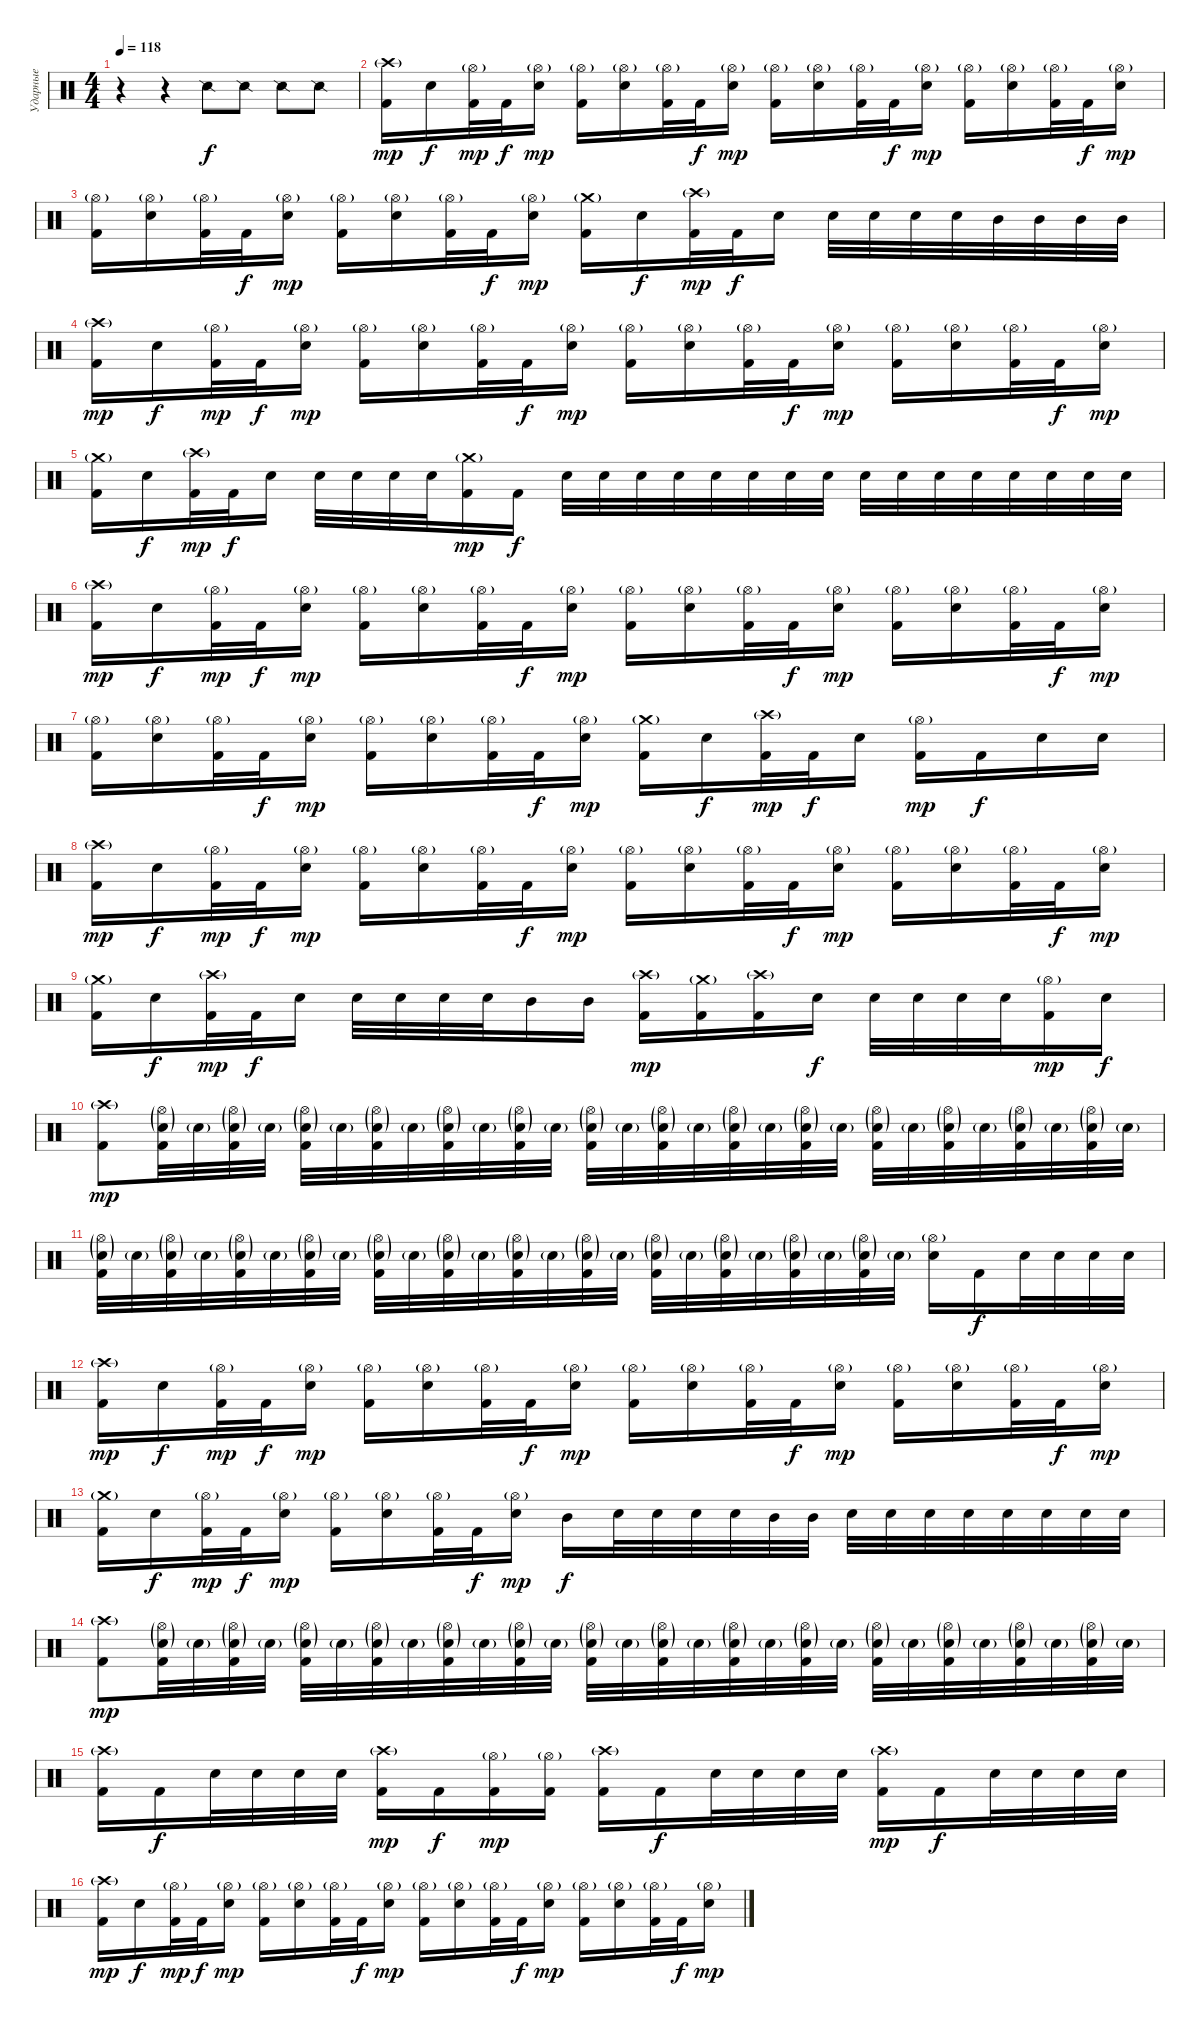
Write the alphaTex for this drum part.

\track ("Ударные" "Ударные") {instrument percussion}
\staff {score}
\articulation defaults
\ts (4 4)
\tempo 118
\clef neutral
\ks c
r.4{dy f} r.4 "Snare (side stick) 2".8 "Snare (side stick) 2".8 "Snare (side stick) 2".8 "Snare (side stick) 2".8 |
("Crash high (hit)"{g} "Kick (hit) 2").16{dy mp} "Electric Snare (hit)".16{dy f} ("Hi-Hat (open)"{g} "Kick (hit) 2").32{dy mp} "Kick (hit) 2".32{dy f} ("Hi-Hat (open)"{g} "Electric Snare (hit)").16{dy mp} ("Hi-Hat (open)"{g} "Kick (hit) 2").16 ("Hi-Hat (open)"{g} "Electric Snare (hit)").16 ("Hi-Hat (open)"{g} "Kick (hit) 2").32 "Kick (hit) 2".32{dy f} ("Hi-Hat (open)"{g} "Electric Snare (hit)").16{dy mp} ("Hi-Hat (open)"{g} "Kick (hit) 2").16 ("Hi-Hat (open)"{g} "Electric Snare (hit)").16 ("Hi-Hat (open)"{g} "Kick (hit) 2").32 "Kick (hit) 2".32{dy f} ("Hi-Hat (open)"{g} "Electric Snare (hit)").16{dy mp} ("Hi-Hat (open)"{g} "Kick (hit) 2").16 ("Hi-Hat (open)"{g} "Electric Snare (hit)").16 ("Hi-Hat (open)"{g} "Kick (hit) 2").32 "Kick (hit) 2".32{dy f} ("Hi-Hat (open)"{g} "Electric Snare (hit)").16{dy mp} |
("Hi-Hat (open)"{g} "Kick (hit) 2").16 ("Hi-Hat (open)"{g} "Electric Snare (hit)").16 ("Hi-Hat (open)"{g} "Kick (hit) 2").32 "Kick (hit) 2".32{dy f} ("Hi-Hat (open)"{g} "Electric Snare (hit)").16{dy mp} ("Hi-Hat (open)"{g} "Kick (hit) 2").16 ("Hi-Hat (open)"{g} "Electric Snare (hit)").16 ("Hi-Hat (open)"{g} "Kick (hit) 2").32 "Kick (hit) 2".32{dy f} ("Hi-Hat (open)"{g} "Electric Snare (hit)").16{dy mp} ("Crash medium (hit)"{g} "Kick (hit) 2").16 "Electric Snare (hit)".16{dy f} ("Crash high (hit)"{g} "Kick (hit) 2").32{dy mp} "Kick (hit) 2".32{dy f} "Electric Snare (hit)".16 "Electric Snare (hit)".32 "Electric Snare (hit)".32 "Electric Snare (hit)".32 "Electric Snare (hit)".32 "Mid Tom (hit)".32 "Mid Tom (hit)".32 "Mid Tom (hit)".32 "Mid Tom (hit)".32 |
("Crash high (hit)"{g} "Kick (hit) 2").16{dy mp} "Electric Snare (hit)".16{dy f} ("Hi-Hat (open)"{g} "Kick (hit) 2").32{dy mp} "Kick (hit) 2".32{dy f} ("Hi-Hat (open)"{g} "Electric Snare (hit)").16{dy mp} ("Hi-Hat (open)"{g} "Kick (hit) 2").16 ("Hi-Hat (open)"{g} "Electric Snare (hit)").16 ("Hi-Hat (open)"{g} "Kick (hit) 2").32 "Kick (hit) 2".32{dy f} ("Hi-Hat (open)"{g} "Electric Snare (hit)").16{dy mp} ("Hi-Hat (open)"{g} "Kick (hit) 2").16 ("Hi-Hat (open)"{g} "Electric Snare (hit)").16 ("Hi-Hat (open)"{g} "Kick (hit) 2").32 "Kick (hit) 2".32{dy f} ("Hi-Hat (open)"{g} "Electric Snare (hit)").16{dy mp} ("Hi-Hat (open)"{g} "Kick (hit) 2").16 ("Hi-Hat (open)"{g} "Electric Snare (hit)").16 ("Hi-Hat (open)"{g} "Kick (hit) 2").32 "Kick (hit) 2".32{dy f} ("Hi-Hat (open)"{g} "Electric Snare (hit)").16{dy mp} |
("Crash medium (hit)"{g} "Kick (hit) 2").16 "Electric Snare (hit)".16{dy f} ("Crash high (hit)"{g} "Kick (hit) 2").32{dy mp} "Kick (hit) 2".32{dy f} "Electric Snare (hit)".16 "Electric Snare (hit)".32 "Electric Snare (hit)".32 "Electric Snare (hit)".32 "Electric Snare (hit)".32 ("Crash medium (hit)"{g} "Kick (hit) 2").16{dy mp} "Kick (hit) 2".16{dy f} "Electric Snare (hit)".32 "Electric Snare (hit)".32 "Electric Snare (hit)".32 "Electric Snare (hit)".32 "Electric Snare (hit)".32 "Electric Snare (hit)".32 "Electric Snare (hit)".32 "Electric Snare (hit)".32 "Electric Snare (hit)".32 "Electric Snare (hit)".32 "Electric Snare (hit)".32 "Electric Snare (hit)".32 "Electric Snare (hit)".32 "Electric Snare (hit)".32 "Electric Snare (hit)".32 "Electric Snare (hit)".32 |
("Crash high (hit)"{g} "Kick (hit) 2").16{dy mp} "Electric Snare (hit)".16{dy f} ("Hi-Hat (open)"{g} "Kick (hit) 2").32{dy mp} "Kick (hit) 2".32{dy f} ("Hi-Hat (open)"{g} "Electric Snare (hit)").16{dy mp} ("Hi-Hat (open)"{g} "Kick (hit) 2").16 ("Hi-Hat (open)"{g} "Electric Snare (hit)").16 ("Hi-Hat (open)"{g} "Kick (hit) 2").32 "Kick (hit) 2".32{dy f} ("Hi-Hat (open)"{g} "Electric Snare (hit)").16{dy mp} ("Hi-Hat (open)"{g} "Kick (hit) 2").16 ("Hi-Hat (open)"{g} "Electric Snare (hit)").16 ("Hi-Hat (open)"{g} "Kick (hit) 2").32 "Kick (hit) 2".32{dy f} ("Hi-Hat (open)"{g} "Electric Snare (hit)").16{dy mp} ("Hi-Hat (open)"{g} "Kick (hit) 2").16 ("Hi-Hat (open)"{g} "Electric Snare (hit)").16 ("Hi-Hat (open)"{g} "Kick (hit) 2").32 "Kick (hit) 2".32{dy f} ("Hi-Hat (open)"{g} "Electric Snare (hit)").16{dy mp} |
("Hi-Hat (open)"{g} "Kick (hit) 2").16 ("Hi-Hat (open)"{g} "Electric Snare (hit)").16 ("Hi-Hat (open)"{g} "Kick (hit) 2").32 "Kick (hit) 2".32{dy f} ("Hi-Hat (open)"{g} "Electric Snare (hit)").16{dy mp} ("Hi-Hat (open)"{g} "Kick (hit) 2").16 ("Hi-Hat (open)"{g} "Electric Snare (hit)").16 ("Hi-Hat (open)"{g} "Kick (hit) 2").32 "Kick (hit) 2".32{dy f} ("Hi-Hat (open)"{g} "Electric Snare (hit)").16{dy mp} ("Crash medium (hit)"{g} "Kick (hit) 2").16 "Electric Snare (hit)".16{dy f} ("Crash high (hit)"{g} "Kick (hit) 2").32{dy mp} "Kick (hit) 2".32{dy f} "Electric Snare (hit)".16 ("Hi-Hat (open)"{g} "Kick (hit) 2").16{dy mp} "Kick (hit) 2".16{dy f} "Electric Snare (hit)".16 "Electric Snare (hit)".16 |
("Crash high (hit)"{g} "Kick (hit) 2").16{dy mp} "Electric Snare (hit)".16{dy f} ("Hi-Hat (open)"{g} "Kick (hit) 2").32{dy mp} "Kick (hit) 2".32{dy f} ("Hi-Hat (open)"{g} "Electric Snare (hit)").16{dy mp} ("Hi-Hat (open)"{g} "Kick (hit) 2").16 ("Hi-Hat (open)"{g} "Electric Snare (hit)").16 ("Hi-Hat (open)"{g} "Kick (hit) 2").32 "Kick (hit) 2".32{dy f} ("Hi-Hat (open)"{g} "Electric Snare (hit)").16{dy mp} ("Hi-Hat (open)"{g} "Kick (hit) 2").16 ("Hi-Hat (open)"{g} "Electric Snare (hit)").16 ("Hi-Hat (open)"{g} "Kick (hit) 2").32 "Kick (hit) 2".32{dy f} ("Hi-Hat (open)"{g} "Electric Snare (hit)").16{dy mp} ("Hi-Hat (open)"{g} "Kick (hit) 2").16 ("Hi-Hat (open)"{g} "Electric Snare (hit)").16 ("Hi-Hat (open)"{g} "Kick (hit) 2").32 "Kick (hit) 2".32{dy f} ("Hi-Hat (open)"{g} "Electric Snare (hit)").16{dy mp} |
("Crash medium (hit)"{g} "Kick (hit) 2").16 "Electric Snare (hit)".16{dy f} ("Crash high (hit)"{g} "Kick (hit) 2").32{dy mp} "Kick (hit) 2".32{dy f} "Electric Snare (hit)".16 "Electric Snare (hit)".32 "Electric Snare (hit)".32 "Electric Snare (hit)".32 "Electric Snare (hit)".32 "Mid Tom (hit)".16 "Mid Tom (hit)".16 ("Crash high (hit)"{g} "Kick (hit) 2").16{dy mp} ("Crash medium (hit)"{g} "Kick (hit) 2").16 ("Crash high (hit)"{g} "Kick (hit) 2").16 "Electric Snare (hit)".16{dy f} "Electric Snare (hit)".32 "Electric Snare (hit)".32 "Electric Snare (hit)".32 "Electric Snare (hit)".32 ("Hi-Hat (open)"{g} "Kick (hit) 2").16{dy mp} "Electric Snare (hit)".16{dy f} |
("Crash high (hit)"{g} "Kick (hit) 2").8{dy mp} ("Hi-Hat (open)"{g} "Electric Snare (hit)"{g} "Kick (hit) 2").32 "Electric Snare (hit)"{g}.32 ("Hi-Hat (open)"{g} "Electric Snare (hit)"{g} "Kick (hit) 2").32 "Electric Snare (hit)"{g}.32 ("Hi-Hat (open)"{g} "Electric Snare (hit)"{g} "Kick (hit) 2").32 "Electric Snare (hit)"{g}.32 ("Hi-Hat (open)"{g} "Electric Snare (hit)"{g} "Kick (hit) 2").32 "Electric Snare (hit)"{g}.32 ("Hi-Hat (open)"{g} "Electric Snare (hit)"{g} "Kick (hit) 2").32 "Electric Snare (hit)"{g}.32 ("Hi-Hat (open)"{g} "Electric Snare (hit)"{g} "Kick (hit) 2").32 "Electric Snare (hit)"{g}.32 ("Hi-Hat (open)"{g} "Electric Snare (hit)"{g} "Kick (hit) 2").32 "Electric Snare (hit)"{g}.32 ("Hi-Hat (open)"{g} "Electric Snare (hit)"{g} "Kick (hit) 2").32 "Electric Snare (hit)"{g}.32 ("Hi-Hat (open)"{g} "Electric Snare (hit)"{g} "Kick (hit) 2").32 "Electric Snare (hit)"{g}.32 ("Hi-Hat (open)"{g} "Electric Snare (hit)"{g} "Kick (hit) 2").32 "Electric Snare (hit)"{g}.32 ("Hi-Hat (open)"{g} "Electric Snare (hit)"{g} "Kick (hit) 2").32 "Electric Snare (hit)"{g}.32 ("Hi-Hat (open)"{g} "Electric Snare (hit)"{g} "Kick (hit) 2").32 "Electric Snare (hit)"{g}.32 ("Hi-Hat (open)"{g} "Electric Snare (hit)"{g} "Kick (hit) 2").32 "Electric Snare (hit)"{g}.32 ("Hi-Hat (open)"{g} "Electric Snare (hit)"{g} "Kick (hit) 2").32 "Electric Snare (hit)"{g}.32 |
("Hi-Hat (open)"{g} "Electric Snare (hit)"{g} "Kick (hit) 2").32 "Electric Snare (hit)"{g}.32 ("Hi-Hat (open)"{g} "Electric Snare (hit)"{g} "Kick (hit) 2").32 "Electric Snare (hit)"{g}.32 ("Hi-Hat (open)"{g} "Electric Snare (hit)"{g} "Kick (hit) 2").32 "Electric Snare (hit)"{g}.32 ("Hi-Hat (open)"{g} "Electric Snare (hit)"{g} "Kick (hit) 2").32 "Electric Snare (hit)"{g}.32 ("Hi-Hat (open)"{g} "Electric Snare (hit)"{g} "Kick (hit) 2").32 "Electric Snare (hit)"{g}.32 ("Hi-Hat (open)"{g} "Electric Snare (hit)"{g} "Kick (hit) 2").32 "Electric Snare (hit)"{g}.32 ("Hi-Hat (open)"{g} "Electric Snare (hit)"{g} "Kick (hit) 2").32 "Electric Snare (hit)"{g}.32 ("Hi-Hat (open)"{g} "Electric Snare (hit)"{g} "Kick (hit) 2").32 "Electric Snare (hit)"{g}.32 ("Hi-Hat (open)"{g} "Electric Snare (hit)"{g} "Kick (hit) 2").32 "Electric Snare (hit)"{g}.32 ("Hi-Hat (open)"{g} "Electric Snare (hit)"{g} "Kick (hit) 2").32 "Electric Snare (hit)"{g}.32 ("Hi-Hat (open)"{g} "Electric Snare (hit)"{g} "Kick (hit) 2").32 "Electric Snare (hit)"{g}.32 ("Hi-Hat (open)"{g} "Electric Snare (hit)"{g} "Kick (hit) 2").32 "Electric Snare (hit)"{g}.32 ("Hi-Hat (open)"{g} "Electric Snare (hit)").16 "Kick (hit) 2".16{dy f} "Electric Snare (hit)".32 "Electric Snare (hit)".32 "Electric Snare (hit)".32 "Electric Snare (hit)".32 |
("Crash high (hit)"{g} "Kick (hit) 2").16{dy mp} "Electric Snare (hit)".16{dy f} ("Hi-Hat (open)"{g} "Kick (hit) 2").32{dy mp} "Kick (hit) 2".32{dy f} ("Hi-Hat (open)"{g} "Electric Snare (hit)").16{dy mp} ("Hi-Hat (open)"{g} "Kick (hit) 2").16 ("Hi-Hat (open)"{g} "Electric Snare (hit)").16 ("Hi-Hat (open)"{g} "Kick (hit) 2").32 "Kick (hit) 2".32{dy f} ("Hi-Hat (open)"{g} "Electric Snare (hit)").16{dy mp} ("Hi-Hat (open)"{g} "Kick (hit) 2").16 ("Hi-Hat (open)"{g} "Electric Snare (hit)").16 ("Hi-Hat (open)"{g} "Kick (hit) 2").32 "Kick (hit) 2".32{dy f} ("Hi-Hat (open)"{g} "Electric Snare (hit)").16{dy mp} ("Hi-Hat (open)"{g} "Kick (hit) 2").16 ("Hi-Hat (open)"{g} "Electric Snare (hit)").16 ("Hi-Hat (open)"{g} "Kick (hit) 2").32 "Kick (hit) 2".32{dy f} ("Hi-Hat (open)"{g} "Electric Snare (hit)").16{dy mp} |
("Crash medium (hit)"{g} "Kick (hit) 2").16 "Electric Snare (hit)".16{dy f} ("Hi-Hat (open)"{g} "Kick (hit) 2").32{dy mp} "Kick (hit) 2".32{dy f} ("Hi-Hat (open)"{g} "Electric Snare (hit)").16{dy mp} ("Hi-Hat (open)"{g} "Kick (hit) 2").16 ("Hi-Hat (open)"{g} "Electric Snare (hit)").16 ("Hi-Hat (open)"{g} "Kick (hit) 2").32 "Kick (hit) 2".32{dy f} ("Hi-Hat (open)"{g} "Electric Snare (hit)").16{dy mp} "Mid Tom (hit)".16{dy f} "Electric Snare (hit)".32 "Electric Snare (hit)".32 "Electric Snare (hit)".32 "Electric Snare (hit)".32 "Mid Tom (hit)".32 "Mid Tom (hit)".32 "Electric Snare (hit)".32 "Electric Snare (hit)".32 "Electric Snare (hit)".32 "Electric Snare (hit)".32 "Electric Snare (hit)".32 "Electric Snare (hit)".32 "Electric Snare (hit)".32 "Electric Snare (hit)".32 |
("Crash high (hit)"{g} "Kick (hit) 2").8{dy mp} ("Hi-Hat (open)"{g} "Electric Snare (hit)"{g} "Kick (hit) 2").32 "Electric Snare (hit)"{g}.32 ("Hi-Hat (open)"{g} "Electric Snare (hit)"{g} "Kick (hit) 2").32 "Electric Snare (hit)"{g}.32 ("Hi-Hat (open)"{g} "Electric Snare (hit)"{g} "Kick (hit) 2").32 "Electric Snare (hit)"{g}.32 ("Hi-Hat (open)"{g} "Electric Snare (hit)"{g} "Kick (hit) 2").32 "Electric Snare (hit)"{g}.32 ("Hi-Hat (open)"{g} "Electric Snare (hit)"{g} "Kick (hit) 2").32 "Electric Snare (hit)"{g}.32 ("Hi-Hat (open)"{g} "Electric Snare (hit)"{g} "Kick (hit) 2").32 "Electric Snare (hit)"{g}.32 ("Hi-Hat (open)"{g} "Electric Snare (hit)"{g} "Kick (hit) 2").32 "Electric Snare (hit)"{g}.32 ("Hi-Hat (open)"{g} "Electric Snare (hit)"{g} "Kick (hit) 2").32 "Electric Snare (hit)"{g}.32 ("Hi-Hat (open)"{g} "Electric Snare (hit)"{g} "Kick (hit) 2").32 "Electric Snare (hit)"{g}.32 ("Hi-Hat (open)"{g} "Electric Snare (hit)"{g} "Kick (hit) 2").32 "Electric Snare (hit)"{g}.32 ("Hi-Hat (open)"{g} "Electric Snare (hit)"{g} "Kick (hit) 2").32 "Electric Snare (hit)"{g}.32 ("Hi-Hat (open)"{g} "Electric Snare (hit)"{g} "Kick (hit) 2").32 "Electric Snare (hit)"{g}.32 ("Hi-Hat (open)"{g} "Electric Snare (hit)"{g} "Kick (hit) 2").32 "Electric Snare (hit)"{g}.32 ("Hi-Hat (open)"{g} "Electric Snare (hit)"{g} "Kick (hit) 2").32 "Electric Snare (hit)"{g}.32 |
("Crash high (hit)"{g} "Kick (hit) 2").16 "Kick (hit) 2".16{dy f} "Electric Snare (hit)".32 "Electric Snare (hit)".32 "Electric Snare (hit)".32 "Electric Snare (hit)".32 ("Crash high (hit)"{g} "Kick (hit) 2").16{dy mp} "Kick (hit) 2".16{dy f} ("Hi-Hat (open)"{g} "Kick (hit) 2").16{dy mp} ("Hi-Hat (open)"{g} "Kick (hit) 2").16 ("Crash high (hit)"{g} "Kick (hit) 2").16 "Kick (hit) 2".16{dy f} "Electric Snare (hit)".32 "Electric Snare (hit)".32 "Electric Snare (hit)".32 "Electric Snare (hit)".32 ("Crash high (hit)"{g} "Kick (hit) 2").16{dy mp} "Kick (hit) 2".16{dy f} "Electric Snare (hit)".32 "Electric Snare (hit)".32 "Electric Snare (hit)".32 "Electric Snare (hit)".32 |
("Crash high (hit)"{g} "Kick (hit) 2").16{dy mp} "Electric Snare (hit)".16{dy f} ("Hi-Hat (open)"{g} "Kick (hit) 2").32{dy mp} "Kick (hit) 2".32{dy f} ("Hi-Hat (open)"{g} "Electric Snare (hit)").16{dy mp} ("Hi-Hat (open)"{g} "Kick (hit) 2").16 ("Hi-Hat (open)"{g} "Electric Snare (hit)").16 ("Hi-Hat (open)"{g} "Kick (hit) 2").32 "Kick (hit) 2".32{dy f} ("Hi-Hat (open)"{g} "Electric Snare (hit)").16{dy mp} ("Hi-Hat (open)"{g} "Kick (hit) 2").16 ("Hi-Hat (open)"{g} "Electric Snare (hit)").16 ("Hi-Hat (open)"{g} "Kick (hit) 2").32 "Kick (hit) 2".32{dy f} ("Hi-Hat (open)"{g} "Electric Snare (hit)").16{dy mp} ("Hi-Hat (open)"{g} "Kick (hit) 2").16 ("Hi-Hat (open)"{g} "Electric Snare (hit)").16 ("Hi-Hat (open)"{g} "Kick (hit) 2").32 "Kick (hit) 2".32{dy f} ("Hi-Hat (open)"{g} "Electric Snare (hit)").16{dy mp}
